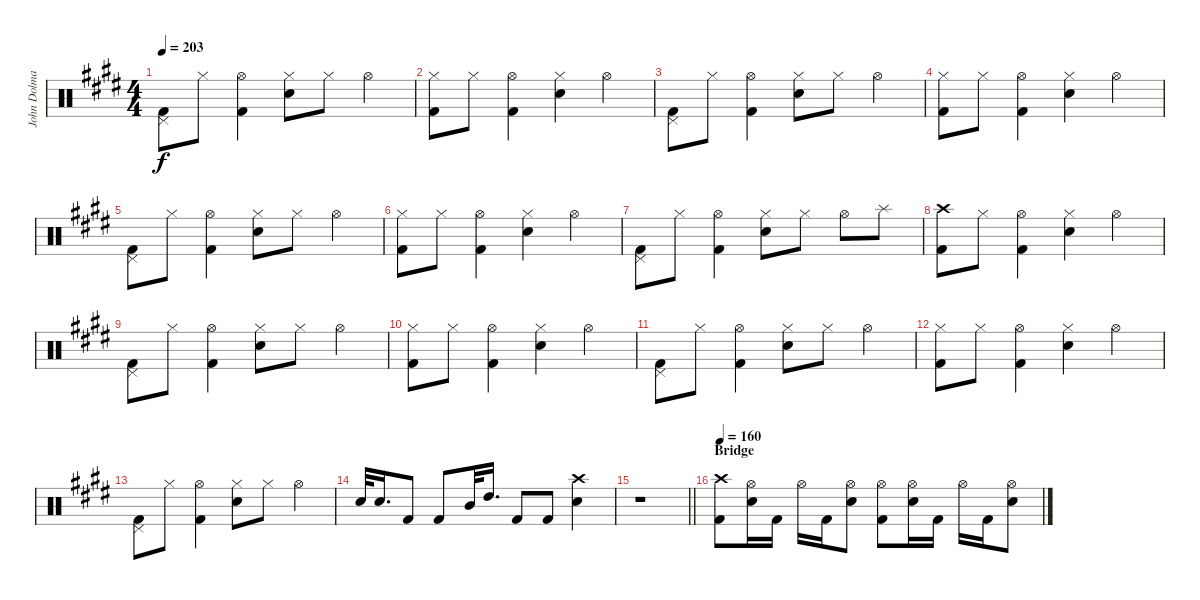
\track ("John Dolmayan [Drums]" "John Dolma") {instrument percussion}
\staff {score}
\articulation defaults
\ts (4 4)
\tempo 203
\clef neutral
\ks c#minor
("Pedal Hi-Hat (hit)" "Kick (hit) 2").8{dy f} "Hi-Hat (closed)".8 ("Hi-Hat (open)" "Kick (hit) 2").4 ("Hi-Hat (closed)" "Electric Snare (hit)").8 "Hi-Hat (closed)".8 "Hi-Hat (open)".4 |
("Hi-Hat (closed)" "Kick (hit) 2").8 "Hi-Hat (closed)".8 ("Hi-Hat (open)" "Kick (hit) 2").4 ("Hi-Hat (closed)" "Electric Snare (hit)").4 "Hi-Hat (open)".4 |
("Pedal Hi-Hat (hit)" "Kick (hit) 2").8 "Hi-Hat (closed)".8 ("Hi-Hat (open)" "Kick (hit) 2").4 ("Hi-Hat (closed)" "Electric Snare (hit)").8 "Hi-Hat (closed)".8 "Hi-Hat (open)".4 |
("Hi-Hat (closed)" "Kick (hit) 2").8 "Hi-Hat (closed)".8 ("Hi-Hat (open)" "Kick (hit) 2").4 ("Hi-Hat (closed)" "Electric Snare (hit)").4 "Hi-Hat (open)".4 |
("Pedal Hi-Hat (hit)" "Kick (hit) 2").8 "Hi-Hat (closed)".8 ("Hi-Hat (open)" "Kick (hit) 2").4 ("Hi-Hat (closed)" "Electric Snare (hit)").8 "Hi-Hat (closed)".8 "Hi-Hat (open)".4 |
("Hi-Hat (closed)" "Kick (hit) 2").8 "Hi-Hat (closed)".8 ("Hi-Hat (open)" "Kick (hit) 2").4 ("Hi-Hat (closed)" "Electric Snare (hit)").4 "Hi-Hat (open)".4 |
("Pedal Hi-Hat (hit)" "Kick (hit) 2").8 "Hi-Hat (closed)".8 ("Hi-Hat (open)" "Kick (hit) 2").4 ("Hi-Hat (closed)" "Electric Snare (hit)").8 "Hi-Hat (closed)".8 "Hi-Hat (open)".8 "Splash (hit)".8 |
("Crash high (hit)" "Kick (hit) 2").8 "Hi-Hat (closed)".8 ("Hi-Hat (open)" "Kick (hit) 2").4 ("Hi-Hat (closed)" "Electric Snare (hit)").4 "Hi-Hat (open)".4 |
("Pedal Hi-Hat (hit)" "Kick (hit) 2").8 "Hi-Hat (closed)".8 ("Hi-Hat (open)" "Kick (hit) 2").4 ("Hi-Hat (closed)" "Electric Snare (hit)").8 "Hi-Hat (closed)".8 "Hi-Hat (open)".4 |
("Hi-Hat (closed)" "Kick (hit) 2").8 "Hi-Hat (closed)".8 ("Hi-Hat (open)" "Kick (hit) 2").4 ("Hi-Hat (closed)" "Electric Snare (hit)").4 "Hi-Hat (open)".4 |
("Pedal Hi-Hat (hit)" "Kick (hit) 2").8 "Hi-Hat (closed)".8 ("Hi-Hat (open)" "Kick (hit) 2").4 ("Hi-Hat (closed)" "Electric Snare (hit)").8 "Hi-Hat (closed)".8 "Hi-Hat (open)".4 |
("Hi-Hat (closed)" "Kick (hit) 2").8 "Hi-Hat (closed)".8 ("Hi-Hat (open)" "Kick (hit) 2").4 ("Hi-Hat (closed)" "Electric Snare (hit)").4 "Hi-Hat (open)".4 |
("Pedal Hi-Hat (hit)" "Kick (hit) 2").8 "Hi-Hat (closed)".8 ("Hi-Hat (open)" "Kick (hit) 2").4 ("Hi-Hat (closed)" "Electric Snare (hit)").8 "Hi-Hat (closed)".8 "Hi-Hat (open)".4 |
"Electric Snare (hit)".32 "Electric Snare (hit)".16{d} "Kick (hit) 2".8 "Kick (hit) 2".8 "Mid Tom (hit)".32 "High Tom (hit)".16{d} "Kick (hit) 2".8 "Kick (hit) 2".8 ("Crash high (hit)" "Electric Snare (hit)").4 |
\barLineRight lightlight
r.1 |
\section ("" "Bridge")
\tempo 160
("Crash high (hit)" "Kick (hit) 2").8 ("Hi-Hat (open)" "Electric Snare (hit)").16 "Kick (hit) 2".16 "Hi-Hat (open)".16 "Kick (hit) 2".16 ("Hi-Hat (open)" "Electric Snare (hit)").8 ("Hi-Hat (open)" "Kick (hit) 2").8 ("Hi-Hat (open)" "Electric Snare (hit)").16 "Kick (hit) 2".16 "Hi-Hat (open)".16 "Kick (hit) 2".16 ("Hi-Hat (open)" "Electric Snare (hit)").8
